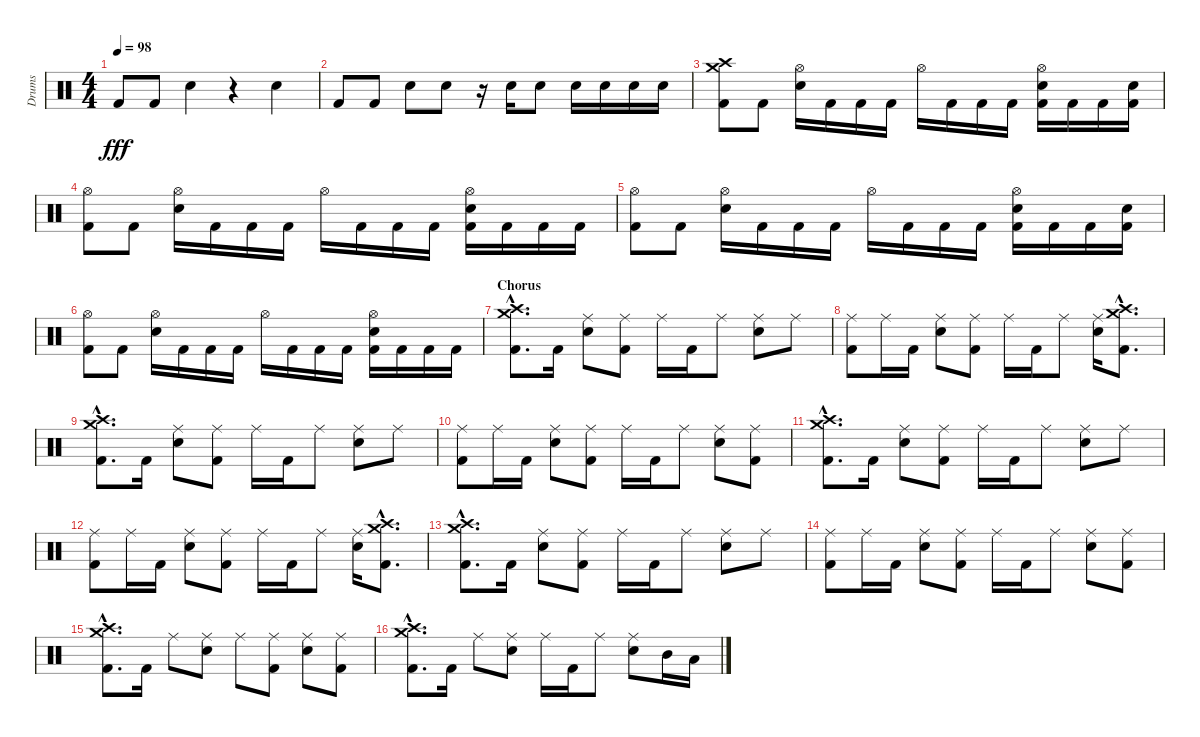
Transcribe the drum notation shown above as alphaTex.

\track ("Drums" "Drums") {instrument percussion}
\staff {score}
\articulation defaults
\ts (4 4)
\tempo 98
\clef neutral
\ks c "Kick (hit) 2".8{dy fff} "Kick (hit) 2".8 "Electric Snare (hit)".4
r.4 "Electric Snare (hit)".4 |
"Kick (hit) 2".8 "Kick (hit) 2".8 "Electric Snare (hit)".8 "Electric Snare (hit)".8 r.16 "Electric Snare (hit)".16 "Electric Snare (hit)".8 "Electric Snare (hit)".16 "Electric Snare (hit)".16 "Electric Snare (hit)".16 "Electric Snare (hit)".16 |
("Crash high (hit)" "Crash medium (hit)" "Kick (hit) 2").8 "Kick (hit) 2".8 ("Hi-Hat (open)" "Electric Snare (hit)").16 "Kick (hit) 2".16 "Kick (hit) 2".16 "Kick (hit) 2".16 "Hi-Hat (open)".16 "Kick (hit) 2".16 "Kick (hit) 2".16 "Kick (hit) 2".16 ("Hi-Hat (open)" "Electric Snare (hit)" "Kick (hit) 2").16 "Kick (hit) 2".16 "Kick (hit) 2".16 ("Electric Snare (hit)" "Kick (hit) 2").16 |
("Hi-Hat (open)" "Kick (hit) 2").8 "Kick (hit) 2".8 ("Hi-Hat (open)" "Electric Snare (hit)").16 "Kick (hit) 2".16 "Kick (hit) 2".16 "Kick (hit) 2".16 "Hi-Hat (open)".16 "Kick (hit) 2".16 "Kick (hit) 2".16 "Kick (hit) 2".16 ("Hi-Hat (open)" "Electric Snare (hit)" "Kick (hit) 2").16 "Kick (hit) 2".16 "Kick (hit) 2".16 "Kick (hit) 2".16 |
("Hi-Hat (open)" "Kick (hit) 2").8 "Kick (hit) 2".8 ("Hi-Hat (open)" "Electric Snare (hit)").16 "Kick (hit) 2".16 "Kick (hit) 2".16 "Kick (hit) 2".16 "Hi-Hat (open)".16 "Kick (hit) 2".16 "Kick (hit) 2".16 "Kick (hit) 2".16 ("Hi-Hat (open)" "Electric Snare (hit)" "Kick (hit) 2").16 "Kick (hit) 2".16 "Kick (hit) 2".16 ("Electric Snare (hit)" "Kick (hit) 2").16 |
("Hi-Hat (open)" "Kick (hit) 2").8 "Kick (hit) 2".8 ("Hi-Hat (open)" "Electric Snare (hit)").16 "Kick (hit) 2".16 "Kick (hit) 2".16 "Kick (hit) 2".16 "Hi-Hat (open)".16 "Kick (hit) 2".16 "Kick (hit) 2".16 "Kick (hit) 2".16 ("Hi-Hat (open)" "Electric Snare (hit)" "Kick (hit) 2").16 "Kick (hit) 2".16 "Kick (hit) 2".16 "Kick (hit) 2".16 |
\section ("" "Chorus")
("Crash high (hit)"{hac} "Crash medium (hit)"{hac} "Kick (hit) 2"{hac}).8{d} "Kick (hit) 2".16 ("Ride (middle)" "Electric Snare (hit)").8 ("Ride (middle)" "Kick (hit) 2").8 "Ride (middle)".16 "Kick (hit) 2".16 "Ride (middle)".8 ("Ride (middle)" "Electric Snare (hit)").8 "Ride (middle)".8 |
("Ride (middle)" "Kick (hit) 2").8 "Ride (middle)".16 "Kick (hit) 2".16 ("Ride (middle)" "Electric Snare (hit)").8 ("Ride (middle)" "Kick (hit) 2").8 "Ride (middle)".16 "Kick (hit) 2".16 "Ride (middle)".8 ("Ride (middle)" "Electric Snare (hit)").16 ("Crash high (hit)"{hac} "Crash medium (hit)"{hac} "Kick (hit) 2"{hac}).8{d} |
("Crash high (hit)"{hac} "Crash medium (hit)"{hac} "Kick (hit) 2"{hac}).8{d} "Kick (hit) 2".16 ("Ride (middle)" "Electric Snare (hit)").8 ("Ride (middle)" "Kick (hit) 2").8 "Ride (middle)".16 "Kick (hit) 2".16 "Ride (middle)".8 ("Ride (middle)" "Electric Snare (hit)").8 "Ride (middle)".8 |
("Ride (middle)" "Kick (hit) 2").8 "Ride (middle)".16 "Kick (hit) 2".16 ("Ride (middle)" "Electric Snare (hit)").8 ("Ride (middle)" "Kick (hit) 2").8 "Ride (middle)".16 "Kick (hit) 2".16 "Ride (middle)".8 ("Ride (middle)" "Electric Snare (hit)").8 ("Ride (middle)" "Kick (hit) 2").8 |
("Crash high (hit)"{hac} "Crash medium (hit)"{hac} "Kick (hit) 2"{hac}).8{d} "Kick (hit) 2".16 ("Ride (middle)" "Electric Snare (hit)").8 ("Ride (middle)" "Kick (hit) 2").8 "Ride (middle)".16 "Kick (hit) 2".16 "Ride (middle)".8 ("Ride (middle)" "Electric Snare (hit)").8 "Ride (middle)".8 |
("Ride (middle)" "Kick (hit) 2").8 "Ride (middle)".16 "Kick (hit) 2".16 ("Ride (middle)" "Electric Snare (hit)").8 ("Ride (middle)" "Kick (hit) 2").8 "Ride (middle)".16 "Kick (hit) 2".16 "Ride (middle)".8 ("Ride (middle)" "Electric Snare (hit)").16 ("Crash high (hit)"{hac} "Crash medium (hit)"{hac} "Kick (hit) 2"{hac}).8{d} |
("Crash high (hit)"{hac} "Crash medium (hit)"{hac} "Kick (hit) 2"{hac}).8{d} "Kick (hit) 2".16 ("Ride (middle)" "Electric Snare (hit)").8 ("Ride (middle)" "Kick (hit) 2").8 "Ride (middle)".16 "Kick (hit) 2".16 "Ride (middle)".8 ("Ride (middle)" "Electric Snare (hit)").8 "Ride (middle)".8 |
("Ride (middle)" "Kick (hit) 2").8 "Ride (middle)".16 "Kick (hit) 2".16 ("Ride (middle)" "Electric Snare (hit)").8 ("Ride (middle)" "Kick (hit) 2").8 "Ride (middle)".16 "Kick (hit) 2".16 "Ride (middle)".8 ("Ride (middle)" "Electric Snare (hit)").8 ("Ride (middle)" "Kick (hit) 2").8 |
("Crash high (hit)"{hac} "Crash medium (hit)"{hac} "Kick (hit) 2"{hac}).8{d} "Kick (hit) 2".16 "Ride (middle)".8 ("Ride (middle)" "Electric Snare (hit)").8 "Ride (middle)".8 ("Ride (middle)" "Kick (hit) 2").8 ("Ride (middle)" "Electric Snare (hit)").8 ("Ride (middle)" "Kick (hit) 2").8 |
("Crash high (hit)"{hac} "Crash medium (hit)"{hac} "Kick (hit) 2"{hac}).8{d} "Kick (hit) 2".16 "Ride (middle)".8 ("Ride (middle)" "Electric Snare (hit)").8 "Ride (middle)".16 "Kick (hit) 2".16 "Ride (middle)".8 ("Ride (middle)" "Electric Snare (hit)").8 "Mid Tom (hit)".16 "Low Tom (hit)".16
